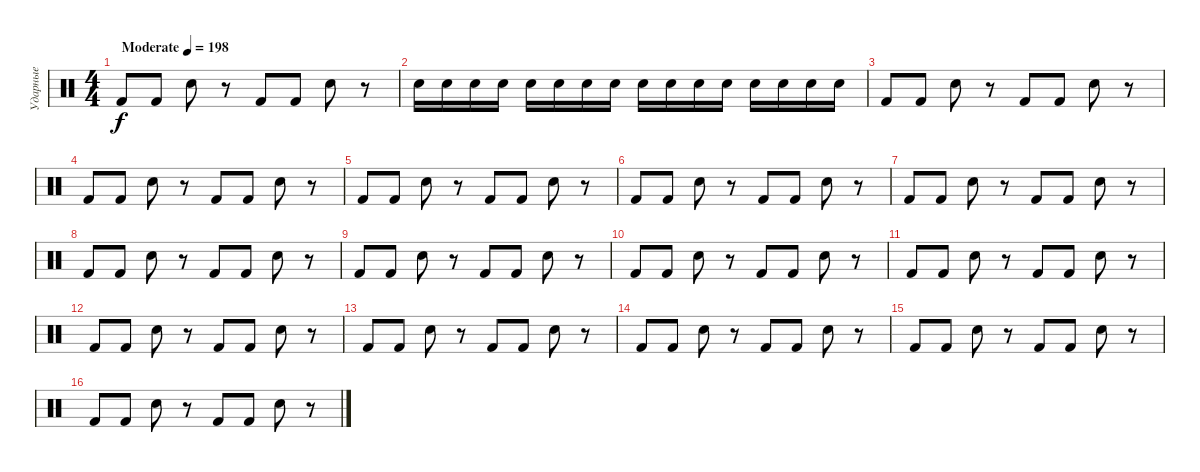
\track ("Ударные" "Ударные") {instrument percussion}
\staff {score}
\articulation defaults
\ts (4 4)
\tempo (198 "Moderate")
\clef neutral
\ks c "Kick (hit) 2".8{dy f} "Kick (hit) 2".8 "Snare (hit) 2".8
r.8 "Kick (hit) 2".8 "Kick (hit) 2".8 "Snare (hit) 2".8 r.8 |
"Snare (hit) 2".16 "Snare (hit) 2".16 "Snare (hit) 2".16 "Snare (hit) 2".16 "Snare (hit) 2".16 "Snare (hit) 2".16 "Snare (hit) 2".16 "Snare (hit) 2".16 "Snare (hit) 2".16 "Snare (hit) 2".16 "Snare (hit) 2".16 "Snare (hit) 2".16 "Snare (hit) 2".16 "Snare (hit) 2".16 "Snare (hit) 2".16 "Snare (hit) 2".16 |
"Kick (hit) 2".8 "Kick (hit) 2".8 "Snare (hit) 2".8 r.8 "Kick (hit) 2".8 "Kick (hit) 2".8 "Snare (hit) 2".8 r.8 |
"Kick (hit) 2".8 "Kick (hit) 2".8 "Snare (hit) 2".8 r.8 "Kick (hit) 2".8 "Kick (hit) 2".8 "Snare (hit) 2".8 r.8 |
"Kick (hit) 2".8 "Kick (hit) 2".8 "Snare (hit) 2".8 r.8 "Kick (hit) 2".8 "Kick (hit) 2".8 "Snare (hit) 2".8 r.8 |
"Kick (hit) 2".8 "Kick (hit) 2".8 "Snare (hit) 2".8 r.8 "Kick (hit) 2".8 "Kick (hit) 2".8 "Snare (hit) 2".8 r.8 |
"Kick (hit) 2".8 "Kick (hit) 2".8 "Snare (hit) 2".8 r.8 "Kick (hit) 2".8 "Kick (hit) 2".8 "Snare (hit) 2".8 r.8 |
"Kick (hit) 2".8 "Kick (hit) 2".8 "Snare (hit) 2".8 r.8 "Kick (hit) 2".8 "Kick (hit) 2".8 "Snare (hit) 2".8 r.8 |
"Kick (hit) 2".8 "Kick (hit) 2".8 "Snare (hit) 2".8 r.8 "Kick (hit) 2".8 "Kick (hit) 2".8 "Snare (hit) 2".8 r.8 |
"Kick (hit) 2".8 "Kick (hit) 2".8 "Snare (hit) 2".8 r.8 "Kick (hit) 2".8 "Kick (hit) 2".8 "Snare (hit) 2".8 r.8 |
"Kick (hit) 2".8 "Kick (hit) 2".8 "Snare (hit) 2".8 r.8 "Kick (hit) 2".8 "Kick (hit) 2".8 "Snare (hit) 2".8 r.8 |
"Kick (hit) 2".8 "Kick (hit) 2".8 "Snare (hit) 2".8 r.8 "Kick (hit) 2".8 "Kick (hit) 2".8 "Snare (hit) 2".8 r.8 |
"Kick (hit) 2".8 "Kick (hit) 2".8 "Snare (hit) 2".8 r.8 "Kick (hit) 2".8 "Kick (hit) 2".8 "Snare (hit) 2".8 r.8 |
"Kick (hit) 2".8 "Kick (hit) 2".8 "Snare (hit) 2".8 r.8 "Kick (hit) 2".8 "Kick (hit) 2".8 "Snare (hit) 2".8 r.8 |
"Kick (hit) 2".8 "Kick (hit) 2".8 "Snare (hit) 2".8 r.8 "Kick (hit) 2".8 "Kick (hit) 2".8 "Snare (hit) 2".8 r.8 |
"Kick (hit) 2".8 "Kick (hit) 2".8 "Snare (hit) 2".8 r.8 "Kick (hit) 2".8 "Kick (hit) 2".8 "Snare (hit) 2".8 r.8
